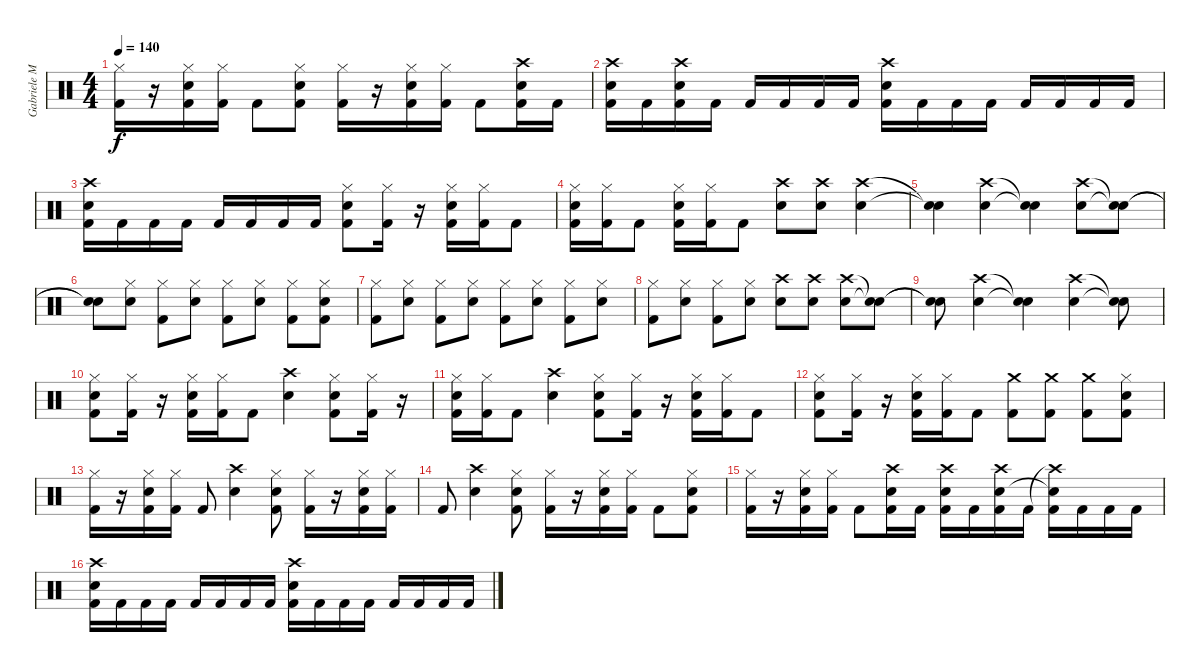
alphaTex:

\track ("Gabriele Malatesta" "Gabriele M") {instrument percussion}
\staff {score}
\articulation defaults
\ts (4 4)
\tempo 140
\clef neutral
\ks c
("Hi-Hat (closed)" "Kick (hit) 2").16{dy f} r.16 ("Hi-Hat (closed)" "Electric Snare (hit)" "Kick (hit) 2").16 ("Hi-Hat (closed)" "Kick (hit) 2").16 "Kick (hit) 2".8 ("Hi-Hat (closed)" "Electric Snare (hit)" "Kick (hit) 2").8 ("Hi-Hat (closed)" "Kick (hit) 2").16 r.16 ("Hi-Hat (closed)" "Electric Snare (hit)" "Kick (hit) 2").16 ("Hi-Hat (closed)" "Kick (hit) 2").16 "Kick (hit) 2".8 ("Crash high (hit)" "Electric Snare (hit)" "Kick (hit) 2").16 "Kick (hit) 2".16 |
("Crash high (hit)" "Electric Snare (hit)" "Kick (hit) 2").16 "Kick (hit) 2".16 ("Crash high (hit)" "Electric Snare (hit)" "Kick (hit) 2").16 "Kick (hit) 2".16 "Kick (hit) 2".16 "Kick (hit) 2".16 "Kick (hit) 2".16 "Kick (hit) 2".16 ("Crash high (hit)" "Electric Snare (hit)" "Kick (hit) 2").16 "Kick (hit) 2".16 "Kick (hit) 2".16 "Kick (hit) 2".16 "Kick (hit) 2".16 "Kick (hit) 2".16 "Kick (hit) 2".16 "Kick (hit) 2".16 |
("Crash high (hit)" "Electric Snare (hit)" "Kick (hit) 2").16 "Kick (hit) 2".16 "Kick (hit) 2".16 "Kick (hit) 2".16 "Kick (hit) 2".16 "Kick (hit) 2".16 "Kick (hit) 2".16 "Kick (hit) 2".16 ("Hi-Hat (closed)" "Electric Snare (hit)" "Kick (hit) 2").8 ("Hi-Hat (closed)" "Kick (hit) 2").16 r.16 ("Hi-Hat (closed)" "Electric Snare (hit)" "Kick (hit) 2").16 ("Hi-Hat (closed)" "Kick (hit) 2").16 "Kick (hit) 2".8 |
("Hi-Hat (closed)" "Electric Snare (hit)" "Kick (hit) 2").16 ("Hi-Hat (closed)" "Kick (hit) 2").16 "Kick (hit) 2".8 ("Hi-Hat (closed)" "Electric Snare (hit)" "Kick (hit) 2").16 ("Hi-Hat (closed)" "Kick (hit) 2").16 "Kick (hit) 2".8 ("Crash high (hit)" "Electric Snare (hit)").8 ("Crash high (hit)" "Electric Snare (hit)").8 ("Crash high (hit)" "Electric Snare (hit)").4 |
("Snare (hit)"{t} "Snare (hit)"{t}).4 ("Crash high (hit)" "Electric Snare (hit)").4 ("Snare (hit)"{t} "Snare (hit)"{t}).4 ("Crash high (hit)" "Electric Snare (hit)").8 ("Snare (hit)"{t} "Snare (hit)"{t}).8 |
("Snare (hit)"{t} "Electric Snare (hit)"{t}).8 ("Hi-Hat (closed)" "Electric Snare (hit)").8 ("Hi-Hat (closed)" "Kick (hit) 2").8 ("Hi-Hat (closed)" "Electric Snare (hit)").8 ("Hi-Hat (closed)" "Kick (hit) 2").8 ("Hi-Hat (closed)" "Electric Snare (hit)").8 ("Hi-Hat (closed)" "Kick (hit) 2").8 ("Hi-Hat (closed)" "Electric Snare (hit)" "Kick (hit) 2").8 |
("Hi-Hat (closed)" "Kick (hit) 2").8 ("Hi-Hat (closed)" "Electric Snare (hit)").8 ("Hi-Hat (closed)" "Kick (hit) 2").8 ("Hi-Hat (closed)" "Electric Snare (hit)").8 ("Hi-Hat (closed)" "Kick (hit) 2").8 ("Hi-Hat (closed)" "Electric Snare (hit)").8 ("Hi-Hat (closed)" "Kick (hit) 2").8 ("Hi-Hat (closed)" "Electric Snare (hit)").8 |
("Hi-Hat (closed)" "Kick (hit) 2").8 ("Hi-Hat (closed)" "Electric Snare (hit)").8 ("Hi-Hat (closed)" "Kick (hit) 2").8 ("Hi-Hat (closed)" "Electric Snare (hit)").8 ("Crash high (hit)" "Electric Snare (hit)").8 ("Crash high (hit)" "Electric Snare (hit)").8 ("Crash high (hit)" "Electric Snare (hit)").8 ("Snare (hit)"{t} "Snare (hit)"{t}).8 |
("Snare (hit)"{t} "Snare (hit)"{t}).8 ("Crash high (hit)" "Electric Snare (hit)").4 ("Snare (hit)"{t} "Snare (hit)"{t}).4 ("Crash high (hit)" "Electric Snare (hit)").4 ("Snare (hit)"{t} "Snare (hit)"{t}).8 |
("Hi-Hat (closed)" "Electric Snare (hit)" "Kick (hit) 2").8 ("Hi-Hat (closed)" "Kick (hit) 2").16 r.16 ("Hi-Hat (closed)" "Electric Snare (hit)" "Kick (hit) 2").16 ("Hi-Hat (closed)" "Kick (hit) 2").16 "Kick (hit) 2".8 ("Crash high (hit)" "Electric Snare (hit)").4 ("Hi-Hat (closed)" "Electric Snare (hit)" "Kick (hit) 2").8 ("Hi-Hat (closed)" "Kick (hit) 2").16 r.16 |
("Hi-Hat (closed)" "Electric Snare (hit)" "Kick (hit) 2").16 ("Hi-Hat (closed)" "Kick (hit) 2").16 "Kick (hit) 2".8 ("Crash high (hit)" "Electric Snare (hit)").4 ("Hi-Hat (closed)" "Electric Snare (hit)" "Kick (hit) 2").8 ("Hi-Hat (closed)" "Kick (hit) 2").16 r.16 ("Hi-Hat (closed)" "Electric Snare (hit)" "Kick (hit) 2").16 ("Hi-Hat (closed)" "Kick (hit) 2").16 "Kick (hit) 2".8 |
("Hi-Hat (closed)" "Electric Snare (hit)" "Kick (hit) 2").8 ("Hi-Hat (closed)" "Kick (hit) 2").16 r.16 ("Hi-Hat (closed)" "Electric Snare (hit)" "Kick (hit) 2").16 ("Hi-Hat (closed)" "Kick (hit) 2").16 "Kick (hit) 2".8 ("Crash medium (hit)" "Kick (hit) 2").8 ("Crash medium (hit)" "Kick (hit) 2").8 ("Crash medium (hit)" "Kick (hit) 2").8 ("Hi-Hat (closed)" "Electric Snare (hit)" "Kick (hit) 2").8 |
("Hi-Hat (closed)" "Kick (hit) 2").16 r.16 ("Hi-Hat (closed)" "Electric Snare (hit)" "Kick (hit) 2").16 ("Hi-Hat (closed)" "Kick (hit) 2").16 "Kick (hit) 2".8 ("Crash high (hit)" "Electric Snare (hit)").4 ("Hi-Hat (closed)" "Electric Snare (hit)" "Kick (hit) 2").8 ("Hi-Hat (closed)" "Kick (hit) 2").16 r.16 ("Hi-Hat (closed)" "Electric Snare (hit)" "Kick (hit) 2").16 ("Hi-Hat (closed)" "Kick (hit) 2").16 |
"Kick (hit) 2".8 ("Crash high (hit)" "Electric Snare (hit)").4 ("Hi-Hat (closed)" "Electric Snare (hit)" "Kick (hit) 2").8 ("Hi-Hat (closed)" "Kick (hit) 2").16 r.16 ("Hi-Hat (closed)" "Electric Snare (hit)" "Kick (hit) 2").16 ("Hi-Hat (closed)" "Kick (hit) 2").16 "Kick (hit) 2".8 ("Hi-Hat (closed)" "Electric Snare (hit)" "Kick (hit) 2").8 |
("Hi-Hat (closed)" "Kick (hit) 2").16 r.16 ("Hi-Hat (closed)" "Electric Snare (hit)" "Kick (hit) 2").16 ("Hi-Hat (closed)" "Kick (hit) 2").16 "Kick (hit) 2".8 ("Crash high (hit)" "Electric Snare (hit)" "Kick (hit) 2").16 "Kick (hit) 2".16 ("Crash high (hit)" "Electric Snare (hit)" "Kick (hit) 2").16 "Kick (hit) 2".16 ("Crash high (hit)" "Electric Snare (hit)" "Kick (hit) 2").16 "Kick (hit) 2".16 ("Crash high (hit)"{t} "Electric Snare (hit)"{t} "Kick (hit) 2").16 "Kick (hit) 2".16 "Kick (hit) 2".16 "Kick (hit) 2".16 |
("Crash high (hit)" "Electric Snare (hit)" "Kick (hit) 2").16 "Kick (hit) 2".16 "Kick (hit) 2".16 "Kick (hit) 2".16 "Kick (hit) 2".16 "Kick (hit) 2".16 "Kick (hit) 2".16 "Kick (hit) 2".16 ("Crash high (hit)" "Electric Snare (hit)" "Kick (hit) 2").16 "Kick (hit) 2".16 "Kick (hit) 2".16 "Kick (hit) 2".16 "Kick (hit) 2".16 "Kick (hit) 2".16 "Kick (hit) 2".16 "Kick (hit) 2".16
